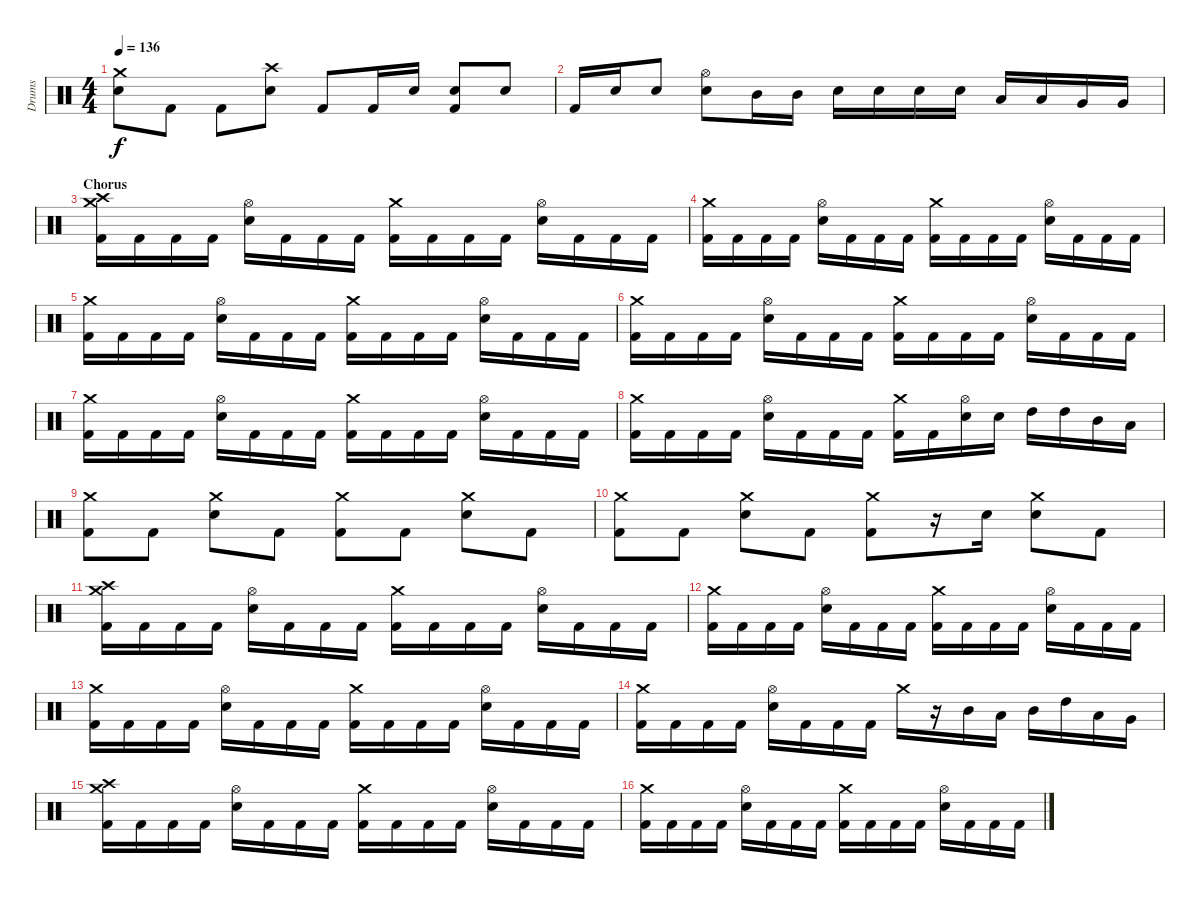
\track ("Drums" "Drums") {instrument percussion}
\staff {score}
\articulation defaults
\ts (4 4)
\tempo 136
\clef neutral
\ks c
("Crash medium (hit)" "Electric Snare (hit)").8{dy f} "Kick (hit) 2".8 "Kick (hit) 2".8 ("Crash high (hit)" "Electric Snare (hit)").8 "Kick (hit) 2".8 "Kick (hit) 2".16 "Electric Snare (hit)".16 ("Snare (hit) 2" "Kick (hit) 2").8 "Electric Snare (hit)".8 |
"Kick (hit) 2".16 "Electric Snare (hit)".16 "Snare (hit) 2".8 ("Hi-Hat (open)" "Electric Snare (hit)").8 "Mid Tom (hit)".16 "Mid Tom (hit)".16 "Electric Snare (hit)".16 "Electric Snare (hit)".16 "Electric Snare (hit)".16 "Electric Snare (hit)".16 "Low Tom (hit)".16 "Low Tom (hit)".16 "Very Low Tom (hit)".16 "Very Low Tom (hit)".16 |
\section ("" "Chorus")
("Crash medium (hit)" "Crash high (hit)" "Kick (hit) 2").16 "Kick (hit) 2".16 "Kick (hit) 2".16 "Kick (hit) 2".16 ("Hi-Hat (open)" "Electric Snare (hit)").16 "Kick (hit) 2".16 "Kick (hit) 2".16 "Kick (hit) 2".16 ("Crash medium (hit)" "Kick (hit) 2").16 "Kick (hit) 2".16 "Kick (hit) 2".16 "Kick (hit) 2".16 ("Hi-Hat (open)" "Electric Snare (hit)").16 "Kick (hit) 2".16 "Kick (hit) 2".16 "Kick (hit) 2".16 |
("Crash medium (hit)" "Kick (hit) 2").16 "Kick (hit) 2".16 "Kick (hit) 2".16 "Kick (hit) 2".16 ("Hi-Hat (open)" "Electric Snare (hit)").16 "Kick (hit) 2".16 "Kick (hit) 2".16 "Kick (hit) 2".16 ("Crash medium (hit)" "Kick (hit) 2").16 "Kick (hit) 2".16 "Kick (hit) 2".16 "Kick (hit) 2".16 ("Hi-Hat (open)" "Electric Snare (hit)").16 "Kick (hit) 2".16 "Kick (hit) 2".16 "Kick (hit) 2".16 |
("Crash medium (hit)" "Kick (hit) 2").16 "Kick (hit) 2".16 "Kick (hit) 2".16 "Kick (hit) 2".16 ("Hi-Hat (open)" "Electric Snare (hit)").16 "Kick (hit) 2".16 "Kick (hit) 2".16 "Kick (hit) 2".16 ("Crash medium (hit)" "Kick (hit) 2").16 "Kick (hit) 2".16 "Kick (hit) 2".16 "Kick (hit) 2".16 ("Hi-Hat (open)" "Electric Snare (hit)").16 "Kick (hit) 2".16 "Kick (hit) 2".16 "Kick (hit) 2".16 |
("Crash medium (hit)" "Kick (hit) 2").16 "Kick (hit) 2".16 "Kick (hit) 2".16 "Kick (hit) 2".16 ("Hi-Hat (open)" "Electric Snare (hit)").16 "Kick (hit) 2".16 "Kick (hit) 2".16 "Kick (hit) 2".16 ("Crash medium (hit)" "Kick (hit) 2").16 "Kick (hit) 2".16 "Kick (hit) 2".16 "Kick (hit) 2".16 ("Hi-Hat (open)" "Electric Snare (hit)").16 "Kick (hit) 2".16 "Kick (hit) 2".16 "Kick (hit) 2".16 |
("Crash medium (hit)" "Kick (hit) 2").16 "Kick (hit) 2".16 "Kick (hit) 2".16 "Kick (hit) 2".16 ("Hi-Hat (open)" "Electric Snare (hit)").16 "Kick (hit) 2".16 "Kick (hit) 2".16 "Kick (hit) 2".16 ("Crash medium (hit)" "Kick (hit) 2").16 "Kick (hit) 2".16 "Kick (hit) 2".16 "Kick (hit) 2".16 ("Hi-Hat (open)" "Electric Snare (hit)").16 "Kick (hit) 2".16 "Kick (hit) 2".16 "Kick (hit) 2".16 |
("Crash medium (hit)" "Kick (hit) 2").16 "Kick (hit) 2".16 "Kick (hit) 2".16 "Kick (hit) 2".16 ("Hi-Hat (open)" "Electric Snare (hit)").16 "Kick (hit) 2".16 "Kick (hit) 2".16 "Kick (hit) 2".16 ("Crash medium (hit)" "Kick (hit) 2").16 "Kick (hit) 2".16 ("Hi-Hat (open)" "Electric Snare (hit)").16 "Electric Snare (hit)".16 "High Tom (hit)".16 "High Tom (hit)".16 "Mid Tom (hit)".16 "Low Tom (hit)".16 |
("Crash medium (hit)" "Kick (hit) 2").8 "Kick (hit) 2".8 ("Crash medium (hit)" "Electric Snare (hit)").8 "Kick (hit) 2".8 ("Crash medium (hit)" "Kick (hit) 2").8 "Kick (hit) 2".8 ("Crash medium (hit)" "Electric Snare (hit)").8 "Kick (hit) 2".8 |
("Crash medium (hit)" "Kick (hit) 2").8 "Kick (hit) 2".8 ("Crash medium (hit)" "Electric Snare (hit)").8 "Kick (hit) 2".8 ("Crash medium (hit)" "Kick (hit) 2").8 r.16 "Electric Snare (hit)".16 ("Crash medium (hit)" "Electric Snare (hit)").8 "Kick (hit) 2".8 |
("Crash medium (hit)" "Crash high (hit)" "Kick (hit) 2").16 "Kick (hit) 2".16 "Kick (hit) 2".16 "Kick (hit) 2".16 ("Hi-Hat (open)" "Electric Snare (hit)").16 "Kick (hit) 2".16 "Kick (hit) 2".16 "Kick (hit) 2".16 ("Crash medium (hit)" "Kick (hit) 2").16 "Kick (hit) 2".16 "Kick (hit) 2".16 "Kick (hit) 2".16 ("Hi-Hat (open)" "Electric Snare (hit)").16 "Kick (hit) 2".16 "Kick (hit) 2".16 "Kick (hit) 2".16 |
("Crash medium (hit)" "Kick (hit) 2").16 "Kick (hit) 2".16 "Kick (hit) 2".16 "Kick (hit) 2".16 ("Hi-Hat (open)" "Electric Snare (hit)").16 "Kick (hit) 2".16 "Kick (hit) 2".16 "Kick (hit) 2".16 ("Crash medium (hit)" "Kick (hit) 2").16 "Kick (hit) 2".16 "Kick (hit) 2".16 "Kick (hit) 2".16 ("Hi-Hat (open)" "Electric Snare (hit)").16 "Kick (hit) 2".16 "Kick (hit) 2".16 "Kick (hit) 2".16 |
("Crash medium (hit)" "Kick (hit) 2").16 "Kick (hit) 2".16 "Kick (hit) 2".16 "Kick (hit) 2".16 ("Hi-Hat (open)" "Electric Snare (hit)").16 "Kick (hit) 2".16 "Kick (hit) 2".16 "Kick (hit) 2".16 ("Crash medium (hit)" "Kick (hit) 2").16 "Kick (hit) 2".16 "Kick (hit) 2".16 "Kick (hit) 2".16 ("Hi-Hat (open)" "Electric Snare (hit)").16 "Kick (hit) 2".16 "Kick (hit) 2".16 "Kick (hit) 2".16 |
("Crash medium (hit)" "Kick (hit) 2").16 "Kick (hit) 2".16 "Kick (hit) 2".16 "Kick (hit) 2".16 ("Hi-Hat (open)" "Electric Snare (hit)").16 "Kick (hit) 2".16 "Kick (hit) 2".16 "Kick (hit) 2".16 "Crash medium (hit)".16 r.16 "Mid Tom (hit)".16 "Low Tom (hit)".16 "Mid Tom (hit)".16 "High Tom (hit)".16 "Low Tom (hit)".16 "Very Low Tom (hit)".16 |
("Crash medium (hit)" "Crash high (hit)" "Kick (hit) 2").16 "Kick (hit) 2".16 "Kick (hit) 2".16 "Kick (hit) 2".16 ("Hi-Hat (open)" "Electric Snare (hit)").16 "Kick (hit) 2".16 "Kick (hit) 2".16 "Kick (hit) 2".16 ("Crash medium (hit)" "Kick (hit) 2").16 "Kick (hit) 2".16 "Kick (hit) 2".16 "Kick (hit) 2".16 ("Hi-Hat (open)" "Electric Snare (hit)").16 "Kick (hit) 2".16 "Kick (hit) 2".16 "Kick (hit) 2".16 |
("Crash medium (hit)" "Kick (hit) 2").16 "Kick (hit) 2".16 "Kick (hit) 2".16 "Kick (hit) 2".16 ("Hi-Hat (open)" "Electric Snare (hit)").16 "Kick (hit) 2".16 "Kick (hit) 2".16 "Kick (hit) 2".16 ("Crash medium (hit)" "Kick (hit) 2").16 "Kick (hit) 2".16 "Kick (hit) 2".16 "Kick (hit) 2".16 ("Hi-Hat (open)" "Electric Snare (hit)").16 "Kick (hit) 2".16 "Kick (hit) 2".16 "Kick (hit) 2".16
